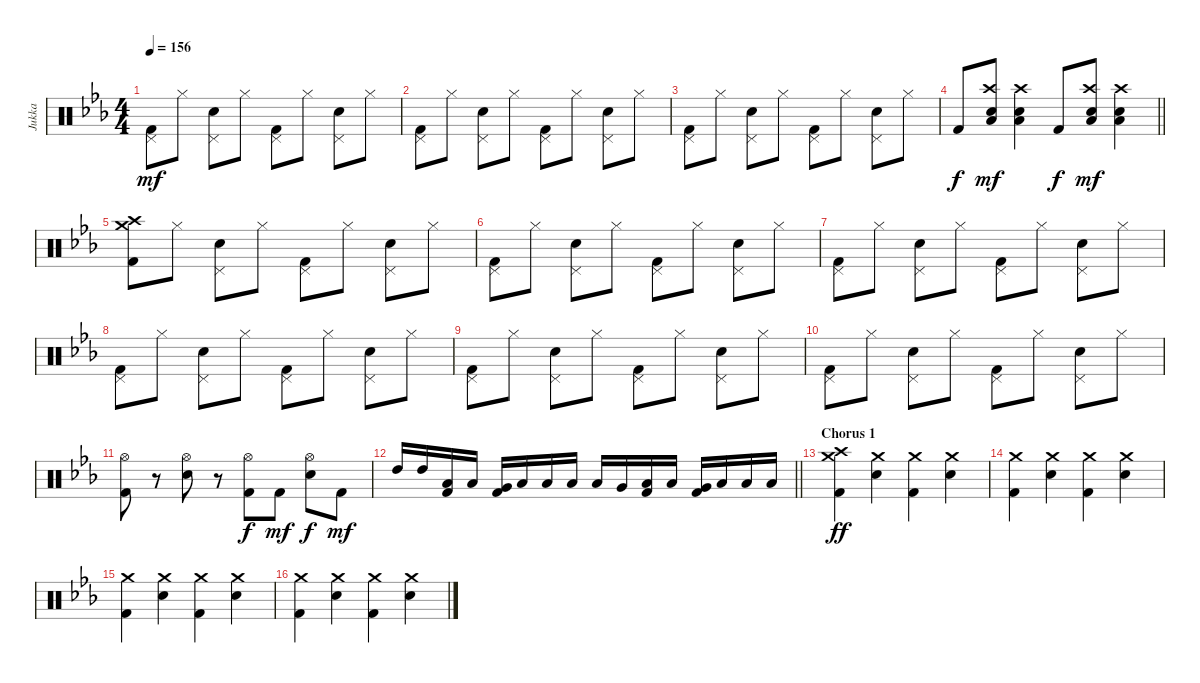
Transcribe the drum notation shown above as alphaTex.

\track ("Jukka" "Jukka") {instrument percussion}
\staff {score}
\articulation defaults
\ts (4 4)
\tempo 156
\clef neutral
\ks cminor
("Pedal Hi-Hat (hit)" "Kick (hit) 2").8{dy mf} "Hi-Hat (closed)".8 ("Pedal Hi-Hat (hit)" "Electric Snare (hit)").8 "Hi-Hat (closed)".8 ("Pedal Hi-Hat (hit)" "Kick (hit) 2").8 "Hi-Hat (closed)".8 ("Pedal Hi-Hat (hit)" "Electric Snare (hit)").8 "Hi-Hat (closed)".8 |
("Pedal Hi-Hat (hit)" "Kick (hit) 2").8 "Hi-Hat (closed)".8 ("Pedal Hi-Hat (hit)" "Electric Snare (hit)").8 "Hi-Hat (closed)".8 ("Pedal Hi-Hat (hit)" "Kick (hit) 2").8 "Hi-Hat (closed)".8 ("Pedal Hi-Hat (hit)" "Electric Snare (hit)").8 "Hi-Hat (closed)".8 |
("Pedal Hi-Hat (hit)" "Kick (hit) 2").8 "Hi-Hat (closed)".8 ("Pedal Hi-Hat (hit)" "Electric Snare (hit)").8 "Hi-Hat (closed)".8 ("Pedal Hi-Hat (hit)" "Kick (hit) 2").8 "Hi-Hat (closed)".8 ("Pedal Hi-Hat (hit)" "Electric Snare (hit)").8 "Hi-Hat (closed)".8 |
\barLineRight lightlight "Kick (hit) 2".8{dy f}
("Crash high (hit)" "Low Floor Tom (hit)" "Electric Snare (hit)").8{dy mf} ("Crash high (hit)" "Low Floor Tom (hit)" "Electric Snare (hit)").4 "Kick (hit) 2".8{dy f} ("Crash high (hit)" "Low Floor Tom (hit)" "Electric Snare (hit)").8{dy mf} ("Crash high (hit)" "Low Floor Tom (hit)" "Electric Snare (hit)").4 |
("Crash medium (hit)" "Crash high (hit)" "Kick (hit) 2").8 "Hi-Hat (closed)".8 ("Pedal Hi-Hat (hit)" "Electric Snare (hit)").8 "Hi-Hat (closed)".8 ("Pedal Hi-Hat (hit)" "Kick (hit) 2").8 "Hi-Hat (closed)".8 ("Pedal Hi-Hat (hit)" "Electric Snare (hit)").8 "Hi-Hat (closed)".8 |
("Pedal Hi-Hat (hit)" "Kick (hit) 2").8 "Hi-Hat (closed)".8 ("Pedal Hi-Hat (hit)" "Electric Snare (hit)").8 "Hi-Hat (closed)".8 ("Pedal Hi-Hat (hit)" "Kick (hit) 2").8 "Hi-Hat (closed)".8 ("Pedal Hi-Hat (hit)" "Electric Snare (hit)").8 "Hi-Hat (closed)".8 |
("Pedal Hi-Hat (hit)" "Kick (hit) 2").8 "Hi-Hat (closed)".8 ("Pedal Hi-Hat (hit)" "Electric Snare (hit)").8 "Hi-Hat (closed)".8 ("Pedal Hi-Hat (hit)" "Kick (hit) 2").8 "Hi-Hat (closed)".8 ("Pedal Hi-Hat (hit)" "Electric Snare (hit)").8 "Hi-Hat (closed)".8 |
("Pedal Hi-Hat (hit)" "Kick (hit) 2").8 "Hi-Hat (closed)".8 ("Pedal Hi-Hat (hit)" "Electric Snare (hit)").8 "Hi-Hat (closed)".8 ("Pedal Hi-Hat (hit)" "Kick (hit) 2").8 "Hi-Hat (closed)".8 ("Pedal Hi-Hat (hit)" "Electric Snare (hit)").8 "Hi-Hat (closed)".8 |
("Pedal Hi-Hat (hit)" "Kick (hit) 2").8 "Hi-Hat (closed)".8 ("Pedal Hi-Hat (hit)" "Electric Snare (hit)").8 "Hi-Hat (closed)".8 ("Pedal Hi-Hat (hit)" "Kick (hit) 2").8 "Hi-Hat (closed)".8 ("Pedal Hi-Hat (hit)" "Electric Snare (hit)").8 "Hi-Hat (closed)".8 |
("Pedal Hi-Hat (hit)" "Kick (hit) 2").8 "Hi-Hat (closed)".8 ("Pedal Hi-Hat (hit)" "Electric Snare (hit)").8 "Hi-Hat (closed)".8 ("Pedal Hi-Hat (hit)" "Kick (hit) 2").8 "Hi-Hat (closed)".8 ("Pedal Hi-Hat (hit)" "Electric Snare (hit)").8 "Hi-Hat (closed)".8 |
("Hi-Hat (open)" "Kick (hit) 2").8 r.8 ("Hi-Hat (open)" "Electric Snare (hit)").8 r.8 ("Hi-Hat (open)" "Kick (hit) 2").8{dy f} "Kick (hit) 2".8{dy mf} ("Hi-Hat (open)" "Electric Snare (hit)").8{dy f} "Kick (hit) 2".8{dy mf} |
\barLineRight lightlight "High Tom (hit)".16 "High Tom (hit)".16
("Low Tom (hit)" "Kick (hit) 2").16 "Low Tom (hit)".16 ("Very Low Tom (hit)" "Kick (hit) 2").16 "Low Floor Tom (hit)".16 "Low Floor Tom (hit)".16 "Low Floor Tom (hit)".16 "Low Tom (hit)".16 "Very Low Tom (hit)".16 ("Low Floor Tom (hit)" "Kick (hit) 2").16 "Low Floor Tom (hit)".16 ("Very Low Tom (hit)" "Kick (hit) 2").16 "Low Floor Tom (hit)".16 "Low Floor Tom (hit)".16 "Low Floor Tom (hit)".16 |
\section ("" "Chorus 1")
("Crash medium (hit)" "Crash high (hit)" "Kick (hit) 2").4{dy ff} ("Crash medium (hit)" "Electric Snare (hit)").4 ("Crash medium (hit)" "Kick (hit) 2").4 ("Crash medium (hit)" "Electric Snare (hit)").4 |
("Crash medium (hit)" "Kick (hit) 2").4 ("Crash medium (hit)" "Electric Snare (hit)").4 ("Crash medium (hit)" "Kick (hit) 2").4 ("Crash medium (hit)" "Electric Snare (hit)").4 |
("Crash medium (hit)" "Kick (hit) 2").4 ("Crash medium (hit)" "Electric Snare (hit)").4 ("Crash medium (hit)" "Kick (hit) 2").4 ("Crash medium (hit)" "Electric Snare (hit)").4 |
("Crash medium (hit)" "Kick (hit) 2").4 ("Crash medium (hit)" "Electric Snare (hit)").4 ("Crash medium (hit)" "Kick (hit) 2").4 ("Crash medium (hit)" "Electric Snare (hit)").4
